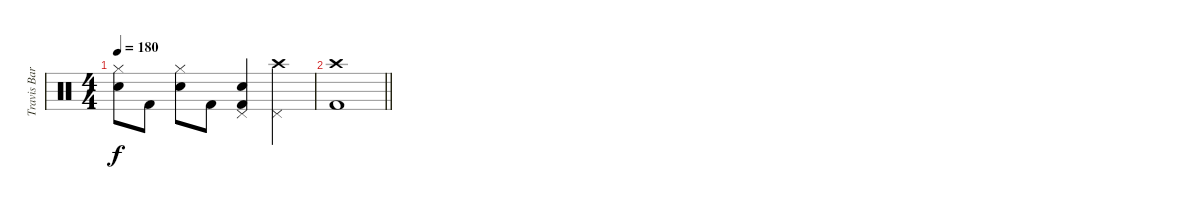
\track ("Travis Barker" "Travis Bar") {instrument percussion}
\staff {score}
\articulation defaults
\ts (4 4)
\tempo 180
\clef neutral
\ks c
("Hi-Hat (closed)" "Electric Snare (hit)").8{dy f} "Kick (hit) 2".8 ("Hi-Hat (closed)" "Electric Snare (hit)").8 "Kick (hit) 2".8 ("Electric Snare (hit)" "Kick (hit) 2" "Pedal Hi-Hat (hit)").4 ("Crash high (hit)" "Pedal Hi-Hat (hit)").4 |
\barLineRight lightlight
("Crash high (hit)" "Kick (hit) 2").1
